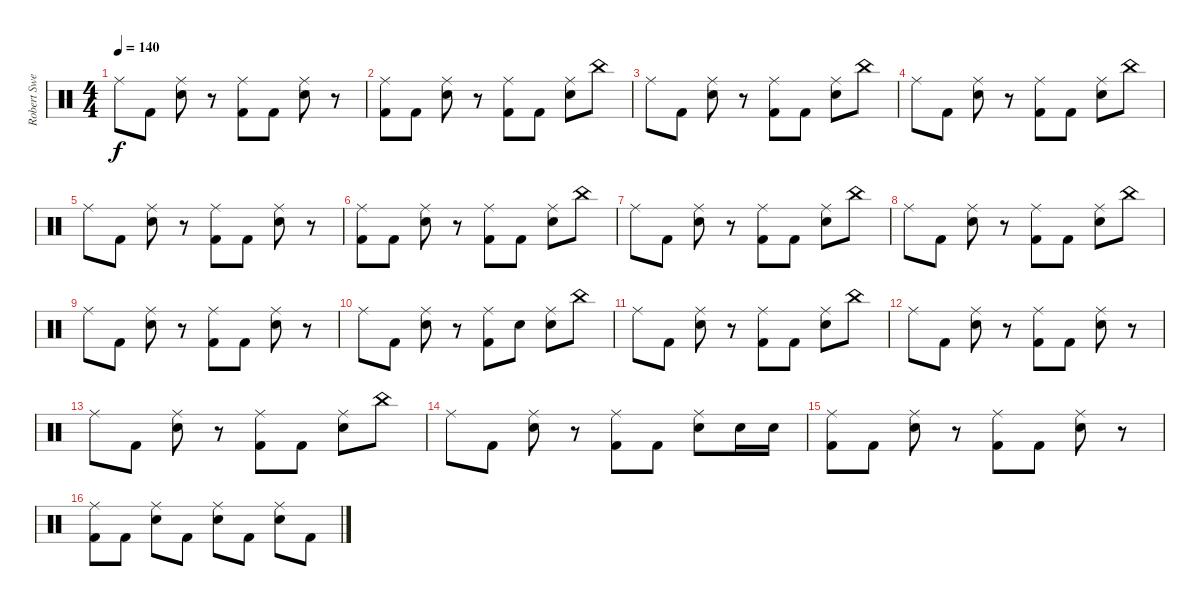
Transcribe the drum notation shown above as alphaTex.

\track ("Robert Sweet" "Robert Swe") {instrument percussion}
\staff {score}
\articulation defaults
\ts (4 4)
\tempo 140
\clef neutral
\ks c "Ride (middle)".8{dy f} "Kick (hit) 2".8
("Ride (middle)" "Electric Snare (hit)").8 r.8 ("Ride (middle)" "Kick (hit) 2").8 "Kick (hit) 2".8 ("Ride (middle)" "Electric Snare (hit)").8 r.8 |
("Ride (middle)" "Kick (hit) 2").8 "Kick (hit) 2".8 ("Ride (middle)" "Electric Snare (hit)").8 r.8 ("Ride (middle)" "Kick (hit) 2").8 "Kick (hit) 2".8 ("Ride (middle)" "Electric Snare (hit)").8 "China (hit)".8 |
"Ride (middle)".8 "Kick (hit) 2".8 ("Ride (middle)" "Electric Snare (hit)").8 r.8 ("Ride (middle)" "Kick (hit) 2").8 "Kick (hit) 2".8 ("Ride (middle)" "Electric Snare (hit)").8 "China (hit)".8 |
"Ride (middle)".8 "Kick (hit) 2".8 ("Ride (middle)" "Electric Snare (hit)").8 r.8 ("Ride (middle)" "Kick (hit) 2").8 "Kick (hit) 2".8 ("Ride (middle)" "Electric Snare (hit)").8 "China (hit)".8 |
"Ride (middle)".8 "Kick (hit) 2".8 ("Ride (middle)" "Electric Snare (hit)").8 r.8 ("Ride (middle)" "Kick (hit) 2").8 "Kick (hit) 2".8 ("Ride (middle)" "Electric Snare (hit)").8 r.8 |
("Ride (middle)" "Kick (hit) 2").8 "Kick (hit) 2".8 ("Ride (middle)" "Electric Snare (hit)").8 r.8 ("Ride (middle)" "Kick (hit) 2").8 "Kick (hit) 2".8 ("Ride (middle)" "Electric Snare (hit)").8 "China (hit)".8 |
"Ride (middle)".8 "Kick (hit) 2".8 ("Ride (middle)" "Electric Snare (hit)").8 r.8 ("Ride (middle)" "Kick (hit) 2").8 "Kick (hit) 2".8 ("Ride (middle)" "Electric Snare (hit)").8 "China (hit)".8 |
"Ride (middle)".8 "Kick (hit) 2".8 ("Ride (middle)" "Electric Snare (hit)").8 r.8 ("Ride (middle)" "Kick (hit) 2").8 "Kick (hit) 2".8 ("Ride (middle)" "Electric Snare (hit)").8 "China (hit)".8 |
"Ride (middle)".8 "Kick (hit) 2".8 ("Ride (middle)" "Electric Snare (hit)").8 r.8 ("Ride (middle)" "Kick (hit) 2").8 "Kick (hit) 2".8 ("Ride (middle)" "Electric Snare (hit)").8 r.8 |
"Ride (middle)".8 "Kick (hit) 2".8 ("Ride (middle)" "Electric Snare (hit)").8 r.8 ("Ride (middle)" "Kick (hit) 2").8 "Electric Snare (hit)".8 ("Ride (middle)" "Electric Snare (hit)").8 "China (hit)".8 |
"Ride (middle)".8 "Kick (hit) 2".8 ("Ride (middle)" "Electric Snare (hit)").8 r.8 ("Ride (middle)" "Kick (hit) 2").8 "Kick (hit) 2".8 ("Ride (middle)" "Electric Snare (hit)").8 "China (hit)".8 |
"Ride (middle)".8 "Kick (hit) 2".8 ("Ride (middle)" "Electric Snare (hit)").8 r.8 ("Ride (middle)" "Kick (hit) 2").8 "Kick (hit) 2".8 ("Ride (middle)" "Electric Snare (hit)").8 r.8 |
"Ride (middle)".8 "Kick (hit) 2".8 ("Ride (middle)" "Electric Snare (hit)").8 r.8 ("Ride (middle)" "Kick (hit) 2").8 "Kick (hit) 2".8 ("Ride (middle)" "Electric Snare (hit)").8 "China (hit)".8 |
"Ride (middle)".8 "Kick (hit) 2".8 ("Ride (middle)" "Electric Snare (hit)").8 r.8 ("Ride (middle)" "Kick (hit) 2").8 "Kick (hit) 2".8 ("Ride (middle)" "Electric Snare (hit)").8 "Electric Snare (hit)".16 "Electric Snare (hit)".16 |
("Ride (middle)" "Kick (hit) 2").8 "Kick (hit) 2".8 ("Ride (middle)" "Electric Snare (hit)").8 r.8 ("Ride (middle)" "Kick (hit) 2").8 "Kick (hit) 2".8 ("Ride (middle)" "Electric Snare (hit)").8 r.8 |
("Ride (middle)" "Kick (hit) 2").8 "Kick (hit) 2".8 ("Ride (middle)" "Electric Snare (hit)").8 "Kick (hit) 2".8 ("Ride (middle)" "Electric Snare (hit)").8 "Kick (hit) 2".8 ("Ride (middle)" "Electric Snare (hit)").8 "Kick (hit) 2".8
